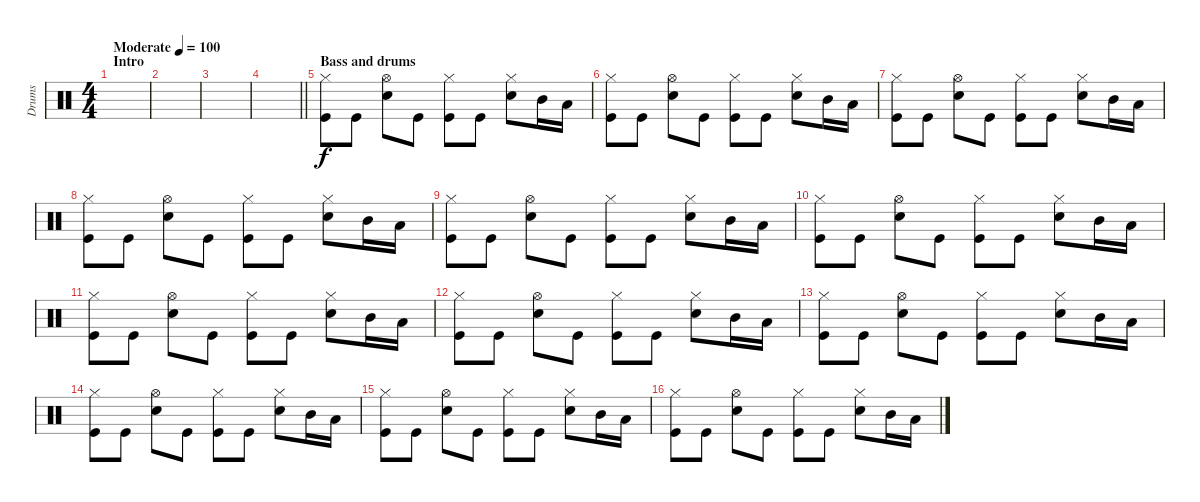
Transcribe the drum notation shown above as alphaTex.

\track ("Drums" "Drums") {instrument percussion}
\staff {score}
\articulation defaults
\ts (4 4)
\section ("" "Intro")
\tempo (100 "Moderate")
\clef neutral
\ks c
|
|
|
\barLineRight lightlight
|
\section ("" "Bass and drums")
("Kick (hit)" "Hi-Hat (closed)").8 "Kick (hit)".8 ("Electric Snare (hit)" "Hi-Hat (open)").8 "Kick (hit)".8 ("Kick (hit)" "Hi-Hat (closed)").8 "Kick (hit)".8 ("Electric Snare (hit)" "Hi-Hat (closed)").8 "Mid Tom (hit)".16 "Low Tom (hit)".16 |
("Kick (hit)" "Hi-Hat (closed)").8 "Kick (hit)".8 ("Electric Snare (hit)" "Hi-Hat (open)").8 "Kick (hit)".8 ("Kick (hit)" "Hi-Hat (closed)").8 "Kick (hit)".8 ("Electric Snare (hit)" "Hi-Hat (closed)").8 "Mid Tom (hit)".16 "Low Tom (hit)".16 |
("Kick (hit)" "Hi-Hat (closed)").8 "Kick (hit)".8 ("Electric Snare (hit)" "Hi-Hat (open)").8 "Kick (hit)".8 ("Kick (hit)" "Hi-Hat (closed)").8 "Kick (hit)".8 ("Electric Snare (hit)" "Hi-Hat (closed)").8 "Mid Tom (hit)".16 "Low Tom (hit)".16 |
("Kick (hit)" "Hi-Hat (closed)").8 "Kick (hit)".8 ("Electric Snare (hit)" "Hi-Hat (open)").8 "Kick (hit)".8 ("Kick (hit)" "Hi-Hat (closed)").8 "Kick (hit)".8 ("Electric Snare (hit)" "Hi-Hat (closed)").8 "Mid Tom (hit)".16 "Low Tom (hit)".16 |
("Kick (hit)" "Hi-Hat (closed)").8 "Kick (hit)".8 ("Electric Snare (hit)" "Hi-Hat (open)").8 "Kick (hit)".8 ("Kick (hit)" "Hi-Hat (closed)").8 "Kick (hit)".8 ("Electric Snare (hit)" "Hi-Hat (closed)").8 "Mid Tom (hit)".16 "Low Tom (hit)".16 |
("Kick (hit)" "Hi-Hat (closed)").8 "Kick (hit)".8 ("Electric Snare (hit)" "Hi-Hat (open)").8 "Kick (hit)".8 ("Kick (hit)" "Hi-Hat (closed)").8 "Kick (hit)".8 ("Electric Snare (hit)" "Hi-Hat (closed)").8 "Mid Tom (hit)".16 "Low Tom (hit)".16 |
("Kick (hit)" "Hi-Hat (closed)").8 "Kick (hit)".8 ("Electric Snare (hit)" "Hi-Hat (open)").8 "Kick (hit)".8 ("Kick (hit)" "Hi-Hat (closed)").8 "Kick (hit)".8 ("Electric Snare (hit)" "Hi-Hat (closed)").8 "Mid Tom (hit)".16 "Low Tom (hit)".16 |
("Kick (hit)" "Hi-Hat (closed)").8 "Kick (hit)".8 ("Electric Snare (hit)" "Hi-Hat (open)").8 "Kick (hit)".8 ("Kick (hit)" "Hi-Hat (closed)").8 "Kick (hit)".8 ("Electric Snare (hit)" "Hi-Hat (closed)").8 "Mid Tom (hit)".16 "Low Tom (hit)".16 |
("Kick (hit)" "Hi-Hat (closed)").8 "Kick (hit)".8 ("Electric Snare (hit)" "Hi-Hat (open)").8 "Kick (hit)".8 ("Kick (hit)" "Hi-Hat (closed)").8 "Kick (hit)".8 ("Electric Snare (hit)" "Hi-Hat (closed)").8 "Mid Tom (hit)".16 "Low Tom (hit)".16 |
("Kick (hit)" "Hi-Hat (closed)").8 "Kick (hit)".8 ("Electric Snare (hit)" "Hi-Hat (open)").8 "Kick (hit)".8 ("Kick (hit)" "Hi-Hat (closed)").8 "Kick (hit)".8 ("Electric Snare (hit)" "Hi-Hat (closed)").8 "Mid Tom (hit)".16 "Low Tom (hit)".16 |
("Kick (hit)" "Hi-Hat (closed)").8 "Kick (hit)".8 ("Electric Snare (hit)" "Hi-Hat (open)").8 "Kick (hit)".8 ("Kick (hit)" "Hi-Hat (closed)").8 "Kick (hit)".8 ("Electric Snare (hit)" "Hi-Hat (closed)").8 "Mid Tom (hit)".16 "Low Tom (hit)".16 |
("Kick (hit)" "Hi-Hat (closed)").8 "Kick (hit)".8 ("Electric Snare (hit)" "Hi-Hat (open)").8 "Kick (hit)".8 ("Kick (hit)" "Hi-Hat (closed)").8 "Kick (hit)".8 ("Electric Snare (hit)" "Hi-Hat (closed)").8 "Mid Tom (hit)".16 "Low Tom (hit)".16
